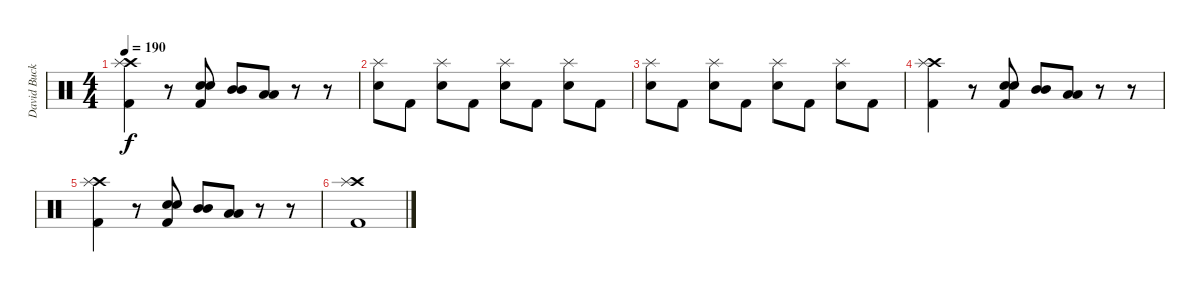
\track ("David Buckner" "David Buck") {instrument percussion}
\staff {score}
\articulation defaults
\ts (4 4)
\tempo 190
\clef neutral
\ks c
("Crash high (hit)" "Splash (hit)" "Kick (hit) 2").4{dy f} r.8 ("Snare (hit) 2" "Snare (hit) 2" "Kick (hit) 2").8 ("Mid Tom (hit)" "Mid Tom (hit)").8 ("Low Tom (hit)" "Low Tom (hit)").8 r.8 r.8 |
("Splash (hit)" "Snare (hit) 2").8 "Kick (hit) 2".8 ("Splash (hit)" "Snare (hit) 2").8 "Kick (hit) 2".8 ("Splash (hit)" "Snare (hit) 2").8 "Kick (hit) 2".8 ("Splash (hit)" "Snare (hit) 2").8 "Kick (hit) 2".8 |
("Splash (hit)" "Snare (hit) 2").8 "Kick (hit) 2".8 ("Splash (hit)" "Snare (hit) 2").8 "Kick (hit) 2".8 ("Splash (hit)" "Snare (hit) 2").8 "Kick (hit) 2".8 ("Splash (hit)" "Snare (hit) 2").8 "Kick (hit) 2".8 |
("Crash high (hit)" "Splash (hit)" "Kick (hit) 2").4 r.8 ("Snare (hit) 2" "Snare (hit) 2" "Kick (hit) 2").8 ("Mid Tom (hit)" "Mid Tom (hit)").8 ("Low Tom (hit)" "Low Tom (hit)").8 r.8 r.8 |
("Crash high (hit)" "Splash (hit)" "Kick (hit) 2").4 r.8 ("Snare (hit) 2" "Snare (hit) 2" "Kick (hit) 2").8 ("Mid Tom (hit)" "Mid Tom (hit)").8 ("Low Tom (hit)" "Low Tom (hit)").8 r.8 r.8 |
("Crash high (hit)" "Splash (hit)" "Kick (hit) 2").1
